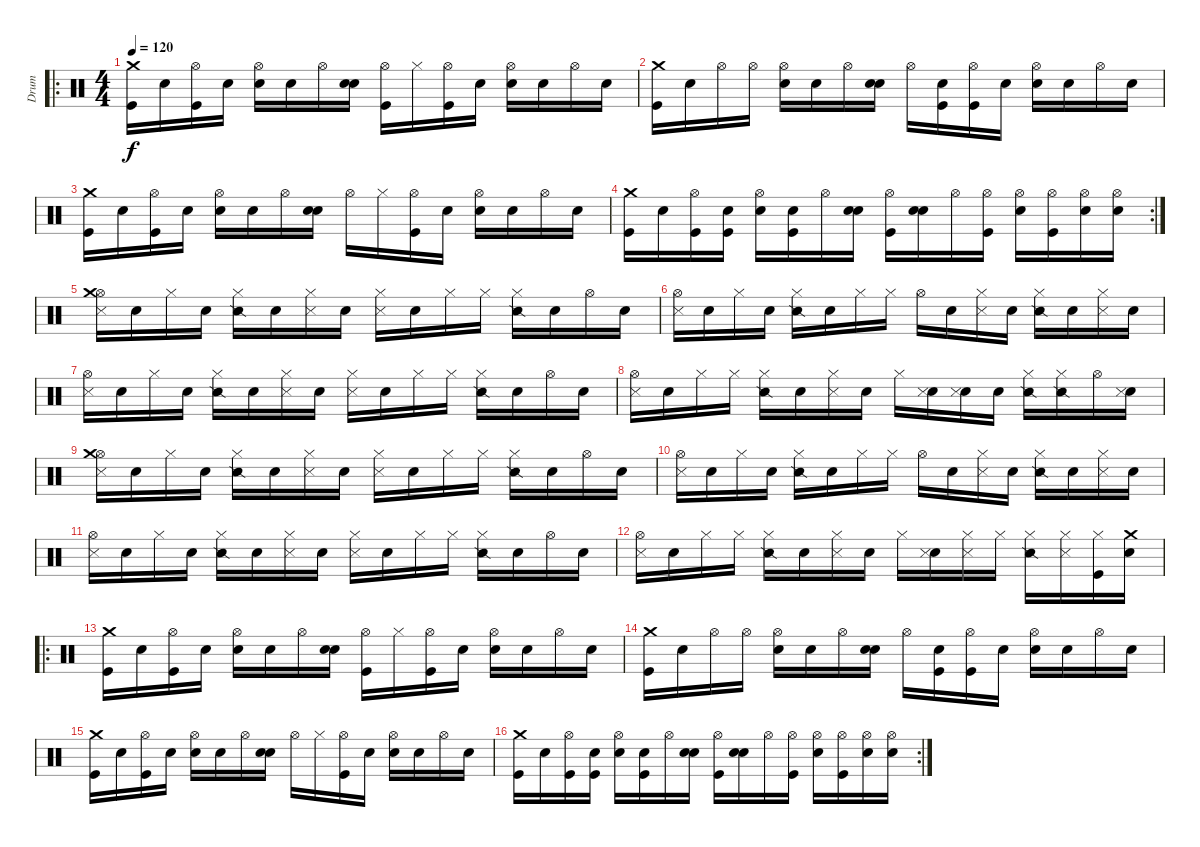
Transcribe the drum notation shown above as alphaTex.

\track ("Drum" "Drum") {instrument percussion}
\staff {score}
\articulation defaults
\ro
\ts (4 4)
\tempo 120
\clef neutral
\ks c
("Crash medium (hit)" "Kick (hit)").16{dy f} "Snare (hit)".16 ("Hi-Hat (open)" "Kick (hit)").16 "Snare (hit)".16 ("Hi-Hat (open)" "Electric Snare (hit)").16 "Snare (hit)".16 "Hi-Hat (open)".16 ("Snare (hit)" "Electric Snare (hit)").16 ("Hi-Hat (open)" "Kick (hit)").16 "Hi-Hat (closed)".16 ("Hi-Hat (open)" "Kick (hit)").16 "Snare (hit)".16 ("Hi-Hat (open)" "Electric Snare (hit)").16 "Snare (hit)".16 "Hi-Hat (open)".16 "Snare (hit)".16 |
("Crash medium (hit)" "Kick (hit)").16 "Snare (hit)".16 "Hi-Hat (open)".16 "Hi-Hat (open)".16 ("Hi-Hat (open)" "Electric Snare (hit)").16 "Snare (hit)".16 "Hi-Hat (open)".16 ("Snare (hit)" "Electric Snare (hit)").16 "Hi-Hat (open)".16 ("Snare (hit)" "Kick (hit)").16 ("Hi-Hat (open)" "Kick (hit)").16 "Snare (hit)".16 ("Hi-Hat (open)" "Electric Snare (hit)").16 "Snare (hit)".16 "Hi-Hat (open)".16 "Snare (hit)".16 |
("Crash medium (hit)" "Kick (hit)").16 "Snare (hit)".16 ("Hi-Hat (open)" "Kick (hit)").16 "Snare (hit)".16 ("Hi-Hat (open)" "Electric Snare (hit)").16 "Snare (hit)".16 "Hi-Hat (open)".16 ("Snare (hit)" "Electric Snare (hit)").16 "Hi-Hat (open)".16 "Hi-Hat (closed)".16 ("Hi-Hat (open)" "Kick (hit)").16 "Snare (hit)".16 ("Hi-Hat (open)" "Electric Snare (hit)").16 "Snare (hit)".16 "Hi-Hat (open)".16 "Snare (hit)".16 |
\rc 2
("Crash medium (hit)" "Kick (hit)").16 "Snare (hit)".16 ("Hi-Hat (open)" "Kick (hit)").16 ("Snare (hit)" "Kick (hit)").16 ("Hi-Hat (open)" "Electric Snare (hit)").16 ("Snare (hit)" "Kick (hit)").16 "Hi-Hat (open)".16 ("Snare (hit)" "Electric Snare (hit)").16 ("Hi-Hat (open)" "Kick (hit)").16 ("Snare (hit)" "Electric Snare (hit)").16 "Hi-Hat (open)".16 ("Hi-Hat (open)" "Kick (hit)").16 ("Hi-Hat (open)" "Electric Snare (hit)").16 ("Hi-Hat (open)" "Kick (hit)").16 ("Hi-Hat (open)" "Electric Snare (hit)").16 ("Hi-Hat (open)" "Electric Snare (hit)").16 |
("Hi-Hat (open)" "Crash medium (hit)" "Metronome (hit)").16 "Snare (hit)".16 "Hi-Hat (closed)".16 "Snare (hit)".16 ("Hi-Hat (closed)" "Snare (side stick) 2").16 "Snare (hit)".16 ("Hi-Hat (closed)" "Metronome (hit)").16 "Snare (hit)".16 ("Hi-Hat (closed)" "Metronome (hit)").16 "Snare (hit)".16 "Hi-Hat (closed)".16 "Hi-Hat (closed)".16 ("Hi-Hat (closed)" "Snare (side stick) 2").16 "Snare (hit)".16 "Hi-Hat (open)".16 "Snare (hit)".16 |
("Hi-Hat (open)" "Metronome (hit)").16 "Snare (hit)".16 "Hi-Hat (closed)".16 "Snare (hit)".16 ("Hi-Hat (closed)" "Snare (side stick) 2").16 "Snare (hit)".16 "Hi-Hat (closed)".16 "Hi-Hat (closed)".16 "Hi-Hat (open)".16 "Snare (hit)".16 ("Hi-Hat (closed)" "Metronome (hit)").16 "Snare (hit)".16 ("Hi-Hat (closed)" "Snare (side stick) 2").16 "Snare (hit)".16 ("Hi-Hat (closed)" "Metronome (hit)").16 "Snare (hit)".16 |
("Hi-Hat (open)" "Metronome (hit)").16 "Snare (hit)".16 "Hi-Hat (closed)".16 "Snare (hit)".16 ("Hi-Hat (closed)" "Snare (side stick) 2").16 "Snare (hit)".16 ("Hi-Hat (closed)" "Metronome (hit)").16 "Snare (hit)".16 ("Hi-Hat (closed)" "Metronome (hit)").16 "Snare (hit)".16 "Hi-Hat (closed)".16 "Hi-Hat (closed)".16 ("Hi-Hat (closed)" "Snare (side stick) 2").16 "Snare (hit)".16 "Hi-Hat (open)".16 "Snare (hit)".16 |
("Hi-Hat (open)" "Metronome (hit)").16 "Snare (hit)".16 "Hi-Hat (closed)".16 "Hi-Hat (closed)".16 ("Hi-Hat (closed)" "Snare (side stick) 2").16 "Snare (hit)".16 ("Hi-Hat (closed)" "Metronome (hit)").16 "Snare (hit)".16 "Hi-Hat (closed)".16 ("Snare (hit)" "Metronome (hit)").16 ("Snare (hit)" "Metronome (hit)").16 "Snare (hit)".16 ("Hi-Hat (closed)" "Snare (side stick) 2").16 ("Hi-Hat (closed)" "Snare (side stick) 2").16 "Hi-Hat (open)".16 ("Snare (hit)" "Metronome (hit)").16 |
("Hi-Hat (open)" "Crash medium (hit)" "Metronome (hit)").16 "Snare (hit)".16 "Hi-Hat (closed)".16 "Snare (hit)".16 ("Hi-Hat (closed)" "Snare (side stick) 2").16 "Snare (hit)".16 ("Hi-Hat (closed)" "Metronome (hit)").16 "Snare (hit)".16 ("Hi-Hat (closed)" "Metronome (hit)").16 "Snare (hit)".16 "Hi-Hat (closed)".16 "Hi-Hat (closed)".16 ("Hi-Hat (closed)" "Snare (side stick) 2").16 "Snare (hit)".16 "Hi-Hat (open)".16 "Snare (hit)".16 |
("Hi-Hat (open)" "Metronome (hit)").16 "Snare (hit)".16 "Hi-Hat (closed)".16 "Snare (hit)".16 ("Hi-Hat (closed)" "Snare (side stick) 2").16 "Snare (hit)".16 "Hi-Hat (closed)".16 "Hi-Hat (closed)".16 "Hi-Hat (open)".16 "Snare (hit)".16 ("Hi-Hat (closed)" "Metronome (hit)").16 "Snare (hit)".16 ("Hi-Hat (closed)" "Snare (side stick) 2").16 "Snare (hit)".16 ("Hi-Hat (closed)" "Metronome (hit)").16 "Snare (hit)".16 |
("Hi-Hat (open)" "Metronome (hit)").16 "Snare (hit)".16 "Hi-Hat (closed)".16 "Snare (hit)".16 ("Hi-Hat (closed)" "Snare (side stick) 2").16 "Snare (hit)".16 ("Hi-Hat (closed)" "Metronome (hit)").16 "Snare (hit)".16 ("Hi-Hat (closed)" "Metronome (hit)").16 "Snare (hit)".16 "Hi-Hat (closed)".16 "Hi-Hat (closed)".16 ("Hi-Hat (closed)" "Snare (side stick) 2").16 "Snare (hit)".16 "Hi-Hat (open)".16 "Snare (hit)".16 |
("Hi-Hat (open)" "Metronome (hit)").16 "Snare (hit)".16 "Hi-Hat (closed)".16 "Hi-Hat (closed)".16 ("Hi-Hat (closed)" "Snare (side stick) 2").16 "Snare (hit)".16 ("Hi-Hat (closed)" "Metronome (hit)").16 "Snare (hit)".16 "Hi-Hat (closed)".16 ("Snare (hit)" "Metronome (hit)").16 ("Hi-Hat (closed)" "Metronome (hit)").16 "Hi-Hat (closed)".16 ("Hi-Hat (closed)" "Snare (side stick) 2").16 ("Hi-Hat (closed)" "Metronome (hit)").16 ("Hi-Hat (closed)" "Kick (hit)").16 ("Crash medium (hit)" "Electric Snare (hit)").16 |
\ro
("Crash medium (hit)" "Kick (hit)").16 "Snare (hit)".16 ("Hi-Hat (open)" "Kick (hit)").16 "Snare (hit)".16 ("Hi-Hat (open)" "Electric Snare (hit)").16 "Snare (hit)".16 "Hi-Hat (open)".16 ("Snare (hit)" "Electric Snare (hit)").16 ("Hi-Hat (open)" "Kick (hit)").16 "Hi-Hat (closed)".16 ("Hi-Hat (open)" "Kick (hit)").16 "Snare (hit)".16 ("Hi-Hat (open)" "Electric Snare (hit)").16 "Snare (hit)".16 "Hi-Hat (open)".16 "Snare (hit)".16 |
("Crash medium (hit)" "Kick (hit)").16 "Snare (hit)".16 "Hi-Hat (open)".16 "Hi-Hat (open)".16 ("Hi-Hat (open)" "Electric Snare (hit)").16 "Snare (hit)".16 "Hi-Hat (open)".16 ("Snare (hit)" "Electric Snare (hit)").16 "Hi-Hat (open)".16 ("Snare (hit)" "Kick (hit)").16 ("Hi-Hat (open)" "Kick (hit)").16 "Snare (hit)".16 ("Hi-Hat (open)" "Electric Snare (hit)").16 "Snare (hit)".16 "Hi-Hat (open)".16 "Snare (hit)".16 |
("Crash medium (hit)" "Kick (hit)").16 "Snare (hit)".16 ("Hi-Hat (open)" "Kick (hit)").16 "Snare (hit)".16 ("Hi-Hat (open)" "Electric Snare (hit)").16 "Snare (hit)".16 "Hi-Hat (open)".16 ("Snare (hit)" "Electric Snare (hit)").16 "Hi-Hat (open)".16 "Hi-Hat (closed)".16 ("Hi-Hat (open)" "Kick (hit)").16 "Snare (hit)".16 ("Hi-Hat (open)" "Electric Snare (hit)").16 "Snare (hit)".16 "Hi-Hat (open)".16 "Snare (hit)".16 |
\rc 2
("Crash medium (hit)" "Kick (hit)").16 "Snare (hit)".16 ("Hi-Hat (open)" "Kick (hit)").16 ("Snare (hit)" "Kick (hit)").16 ("Hi-Hat (open)" "Electric Snare (hit)").16 ("Snare (hit)" "Kick (hit)").16 "Hi-Hat (open)".16 ("Snare (hit)" "Electric Snare (hit)").16 ("Hi-Hat (open)" "Kick (hit)").16 ("Snare (hit)" "Electric Snare (hit)").16 "Hi-Hat (open)".16 ("Hi-Hat (open)" "Kick (hit)").16 ("Hi-Hat (open)" "Electric Snare (hit)").16 ("Hi-Hat (open)" "Kick (hit)").16 ("Hi-Hat (open)" "Electric Snare (hit)").16 ("Hi-Hat (open)" "Electric Snare (hit)").16
